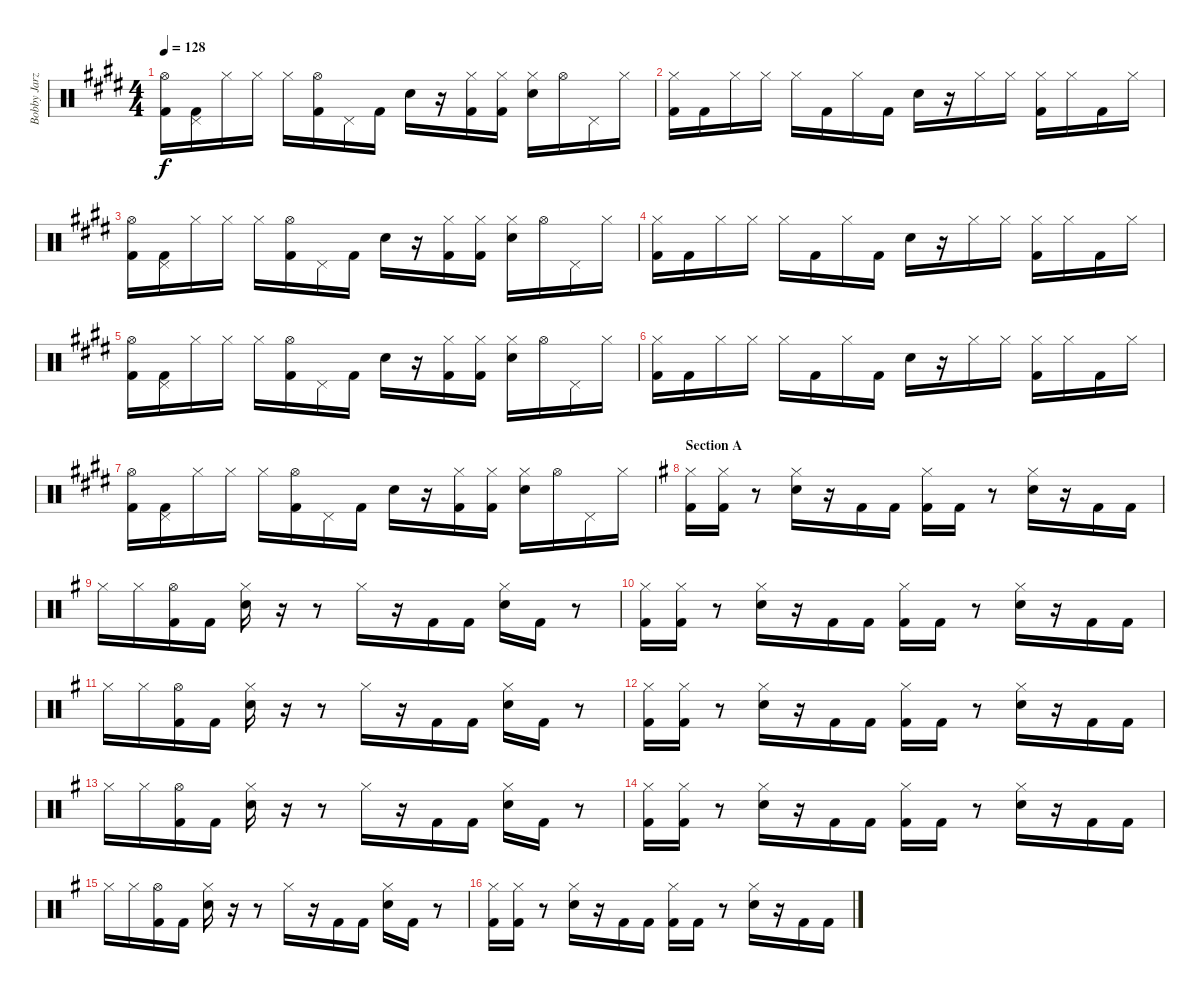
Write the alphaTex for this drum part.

\track ("Bobby Jarzombek" "Bobby Jarz") {instrument percussion}
\staff {score}
\articulation defaults
\ts (4 4)
\tempo 128
\clef neutral
\ks c#minor
("Hi-Hat (open)" "Kick (hit) 2").16{dy f} ("Pedal Hi-Hat (hit)" "Kick (hit) 2").16 "Hi-Hat (closed)".16 "Hi-Hat (closed)".16 "Hi-Hat (closed)".16 ("Hi-Hat (open)" "Kick (hit) 2").16 "Pedal Hi-Hat (hit)".16 "Kick (hit) 2".16 "Electric Snare (hit)".16 r.16 ("Hi-Hat (closed)" "Kick (hit) 2").16 ("Hi-Hat (closed)" "Kick (hit) 2").16 ("Hi-Hat (closed)" "Electric Snare (hit)").16 "Hi-Hat (open)".16 "Pedal Hi-Hat (hit)".16 "Hi-Hat (closed)".16 |
("Hi-Hat (closed)" "Kick (hit) 2").16 "Kick (hit) 2".16 "Hi-Hat (closed)".16 "Hi-Hat (closed)".16 "Hi-Hat (closed)".16 "Kick (hit) 2".16 "Hi-Hat (closed)".16 "Kick (hit) 2".16 "Electric Snare (hit)".16 r.16 "Hi-Hat (closed)".16 "Hi-Hat (closed)".16 ("Hi-Hat (closed)" "Kick (hit) 2").16 "Hi-Hat (closed)".16 "Kick (hit) 2".16 "Hi-Hat (closed)".16 |
("Hi-Hat (open)" "Kick (hit) 2").16 ("Pedal Hi-Hat (hit)" "Kick (hit) 2").16 "Hi-Hat (closed)".16 "Hi-Hat (closed)".16 "Hi-Hat (closed)".16 ("Hi-Hat (open)" "Kick (hit) 2").16 "Pedal Hi-Hat (hit)".16 "Kick (hit) 2".16 "Electric Snare (hit)".16 r.16 ("Hi-Hat (closed)" "Kick (hit) 2").16 ("Hi-Hat (closed)" "Kick (hit) 2").16 ("Hi-Hat (closed)" "Electric Snare (hit)").16 "Hi-Hat (open)".16 "Pedal Hi-Hat (hit)".16 "Hi-Hat (closed)".16 |
("Hi-Hat (closed)" "Kick (hit) 2").16 "Kick (hit) 2".16 "Hi-Hat (closed)".16 "Hi-Hat (closed)".16 "Hi-Hat (closed)".16 "Kick (hit) 2".16 "Hi-Hat (closed)".16 "Kick (hit) 2".16 "Electric Snare (hit)".16 r.16 "Hi-Hat (closed)".16 "Hi-Hat (closed)".16 ("Hi-Hat (closed)" "Kick (hit) 2").16 "Hi-Hat (closed)".16 "Kick (hit) 2".16 "Hi-Hat (closed)".16 |
("Hi-Hat (open)" "Kick (hit) 2").16 ("Pedal Hi-Hat (hit)" "Kick (hit) 2").16 "Hi-Hat (closed)".16 "Hi-Hat (closed)".16 "Hi-Hat (closed)".16 ("Hi-Hat (open)" "Kick (hit) 2").16 "Pedal Hi-Hat (hit)".16 "Kick (hit) 2".16 "Electric Snare (hit)".16 r.16 ("Hi-Hat (closed)" "Kick (hit) 2").16 ("Hi-Hat (closed)" "Kick (hit) 2").16 ("Hi-Hat (closed)" "Electric Snare (hit)").16 "Hi-Hat (open)".16 "Pedal Hi-Hat (hit)".16 "Hi-Hat (closed)".16 |
("Hi-Hat (closed)" "Kick (hit) 2").16 "Kick (hit) 2".16 "Hi-Hat (closed)".16 "Hi-Hat (closed)".16 "Hi-Hat (closed)".16 "Kick (hit) 2".16 "Hi-Hat (closed)".16 "Kick (hit) 2".16 "Electric Snare (hit)".16 r.16 "Hi-Hat (closed)".16 "Hi-Hat (closed)".16 ("Hi-Hat (closed)" "Kick (hit) 2").16 "Hi-Hat (closed)".16 "Kick (hit) 2".16 "Hi-Hat (closed)".16 |
("Hi-Hat (open)" "Kick (hit) 2").16 ("Pedal Hi-Hat (hit)" "Kick (hit) 2").16 "Hi-Hat (closed)".16 "Hi-Hat (closed)".16 "Hi-Hat (closed)".16 ("Hi-Hat (open)" "Kick (hit) 2").16 "Pedal Hi-Hat (hit)".16 "Kick (hit) 2".16 "Electric Snare (hit)".16 r.16 ("Hi-Hat (closed)" "Kick (hit) 2").16 ("Hi-Hat (closed)" "Kick (hit) 2").16 ("Hi-Hat (closed)" "Electric Snare (hit)").16 "Hi-Hat (open)".16 "Pedal Hi-Hat (hit)".16 "Hi-Hat (closed)".16 |
\section ("" "Section A")
\ks eminor
("Hi-Hat (closed)" "Kick (hit) 2").16 ("Hi-Hat (closed)" "Kick (hit) 2").16 r.8 ("Hi-Hat (closed)" "Electric Snare (hit)").16 r.16 "Kick (hit) 2".16 "Kick (hit) 2".16 ("Hi-Hat (closed)" "Kick (hit) 2").16 "Kick (hit) 2".16 r.8 ("Hi-Hat (closed)" "Electric Snare (hit)").16 r.16 "Kick (hit) 2".16 "Kick (hit) 2".16 |
"Hi-Hat (closed)".16 "Hi-Hat (closed)".16 ("Hi-Hat (open)" "Kick (hit) 2").16 "Kick (hit) 2".16 ("Hi-Hat (closed)" "Electric Snare (hit)").16 r.16 r.8 "Hi-Hat (closed)".16 r.16 "Kick (hit) 2".16 "Kick (hit) 2".16 ("Hi-Hat (closed)" "Electric Snare (hit)").16 "Kick (hit) 2".16 r.8 |
("Hi-Hat (closed)" "Kick (hit) 2").16 ("Hi-Hat (closed)" "Kick (hit) 2").16 r.8 ("Hi-Hat (closed)" "Electric Snare (hit)").16 r.16 "Kick (hit) 2".16 "Kick (hit) 2".16 ("Hi-Hat (closed)" "Kick (hit) 2").16 "Kick (hit) 2".16 r.8 ("Hi-Hat (closed)" "Electric Snare (hit)").16 r.16 "Kick (hit) 2".16 "Kick (hit) 2".16 |
"Hi-Hat (closed)".16 "Hi-Hat (closed)".16 ("Hi-Hat (open)" "Kick (hit) 2").16 "Kick (hit) 2".16 ("Hi-Hat (closed)" "Electric Snare (hit)").16 r.16 r.8 "Hi-Hat (closed)".16 r.16 "Kick (hit) 2".16 "Kick (hit) 2".16 ("Hi-Hat (closed)" "Electric Snare (hit)").16 "Kick (hit) 2".16 r.8 |
("Hi-Hat (closed)" "Kick (hit) 2").16 ("Hi-Hat (closed)" "Kick (hit) 2").16 r.8 ("Hi-Hat (closed)" "Electric Snare (hit)").16 r.16 "Kick (hit) 2".16 "Kick (hit) 2".16 ("Hi-Hat (closed)" "Kick (hit) 2").16 "Kick (hit) 2".16 r.8 ("Hi-Hat (closed)" "Electric Snare (hit)").16 r.16 "Kick (hit) 2".16 "Kick (hit) 2".16 |
"Hi-Hat (closed)".16 "Hi-Hat (closed)".16 ("Hi-Hat (open)" "Kick (hit) 2").16 "Kick (hit) 2".16 ("Hi-Hat (closed)" "Electric Snare (hit)").16 r.16 r.8 "Hi-Hat (closed)".16 r.16 "Kick (hit) 2".16 "Kick (hit) 2".16 ("Hi-Hat (closed)" "Electric Snare (hit)").16 "Kick (hit) 2".16 r.8 |
("Hi-Hat (closed)" "Kick (hit) 2").16 ("Hi-Hat (closed)" "Kick (hit) 2").16 r.8 ("Hi-Hat (closed)" "Electric Snare (hit)").16 r.16 "Kick (hit) 2".16 "Kick (hit) 2".16 ("Hi-Hat (closed)" "Kick (hit) 2").16 "Kick (hit) 2".16 r.8 ("Hi-Hat (closed)" "Electric Snare (hit)").16 r.16 "Kick (hit) 2".16 "Kick (hit) 2".16 |
"Hi-Hat (closed)".16 "Hi-Hat (closed)".16 ("Hi-Hat (open)" "Kick (hit) 2").16 "Kick (hit) 2".16 ("Hi-Hat (closed)" "Electric Snare (hit)").16 r.16 r.8 "Hi-Hat (closed)".16 r.16 "Kick (hit) 2".16 "Kick (hit) 2".16 ("Hi-Hat (closed)" "Electric Snare (hit)").16 "Kick (hit) 2".16 r.8 |
("Hi-Hat (closed)" "Kick (hit) 2").16 ("Hi-Hat (closed)" "Kick (hit) 2").16 r.8 ("Hi-Hat (closed)" "Electric Snare (hit)").16 r.16 "Kick (hit) 2".16 "Kick (hit) 2".16 ("Hi-Hat (closed)" "Kick (hit) 2").16 "Kick (hit) 2".16 r.8 ("Hi-Hat (closed)" "Electric Snare (hit)").16 r.16 "Kick (hit) 2".16 "Kick (hit) 2".16
